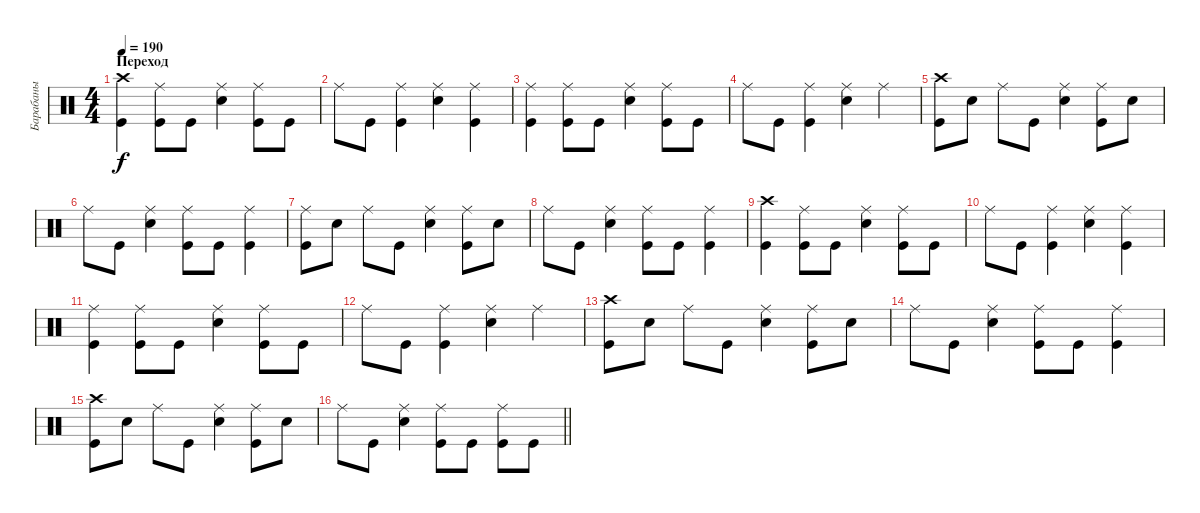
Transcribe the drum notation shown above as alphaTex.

\track ("Барабаны" "Барабаны") {instrument percussion}
\staff {score}
\articulation defaults
\ts (4 4)
\section ("" "Переход")
\tempo 190
\clef neutral
\ks c
("Kick (hit)" "Crash high (hit)").4{dy f} ("Kick (hit)" "Ride (middle)").8 "Kick (hit)".8 ("Snare (hit) 2" "Ride (middle)").4 ("Kick (hit)" "Ride (middle)").8 "Kick (hit)".8 |
"Ride (middle)".8 "Kick (hit)".8 ("Kick (hit)" "Ride (middle)").4 ("Snare (hit) 2" "Ride (middle)").4 ("Kick (hit)" "Ride (middle)").4 |
("Kick (hit)" "Ride (middle)").4 ("Kick (hit)" "Ride (middle)").8 "Kick (hit)".8 ("Snare (hit) 2" "Ride (middle)").4 ("Kick (hit)" "Ride (middle)").8 "Kick (hit)".8 |
"Ride (middle)".8 "Kick (hit)".8 ("Kick (hit)" "Ride (middle)").4 ("Snare (hit) 2" "Ride (middle)").4 "Ride (middle)".4 |
("Kick (hit)" "Crash high (hit)").8 "Snare (hit) 2".8 "Ride (middle)".8 "Kick (hit)".8 ("Snare (hit) 2" "Ride (middle)").4 ("Kick (hit)" "Ride (middle)").8 "Snare (hit) 2".8 |
"Ride (middle)".8 "Kick (hit)".8 ("Snare (hit) 2" "Ride (middle)").4 ("Kick (hit)" "Ride (middle)").8 "Kick (hit)".8 ("Kick (hit)" "Ride (middle)").4 |
("Kick (hit)" "Ride (middle)").8 "Snare (hit) 2".8 "Ride (middle)".8 "Kick (hit)".8 ("Snare (hit) 2" "Ride (middle)").4 ("Kick (hit)" "Ride (middle)").8 "Snare (hit) 2".8 |
"Ride (middle)".8 "Kick (hit)".8 ("Snare (hit) 2" "Ride (middle)").4 ("Kick (hit)" "Ride (middle)").8 "Kick (hit)".8 ("Kick (hit)" "Ride (middle)").4 |
("Kick (hit)" "Crash high (hit)").4 ("Kick (hit)" "Ride (middle)").8 "Kick (hit)".8 ("Snare (hit) 2" "Ride (middle)").4 ("Kick (hit)" "Ride (middle)").8 "Kick (hit)".8 |
"Ride (middle)".8 "Kick (hit)".8 ("Kick (hit)" "Ride (middle)").4 ("Snare (hit) 2" "Ride (middle)").4 ("Kick (hit)" "Ride (middle)").4 |
("Kick (hit)" "Ride (middle)").4 ("Kick (hit)" "Ride (middle)").8 "Kick (hit)".8 ("Snare (hit) 2" "Ride (middle)").4 ("Kick (hit)" "Ride (middle)").8 "Kick (hit)".8 |
"Ride (middle)".8 "Kick (hit)".8 ("Kick (hit)" "Ride (middle)").4 ("Snare (hit) 2" "Ride (middle)").4 "Ride (middle)".4 |
("Kick (hit)" "Crash high (hit)").8 "Snare (hit) 2".8 "Ride (middle)".8 "Kick (hit)".8 ("Snare (hit) 2" "Ride (middle)").4 ("Kick (hit)" "Ride (middle)").8 "Snare (hit) 2".8 |
"Ride (middle)".8 "Kick (hit)".8 ("Snare (hit) 2" "Ride (middle)").4 ("Kick (hit)" "Ride (middle)").8 "Kick (hit)".8 ("Kick (hit)" "Ride (middle)").4 |
("Kick (hit)" "Crash high (hit)").8 "Snare (hit) 2".8 "Ride (middle)".8 "Kick (hit)".8 ("Snare (hit) 2" "Ride (middle)").4 ("Kick (hit)" "Ride (middle)").8 "Snare (hit) 2".8 |
\barLineRight lightlight "Ride (middle)".8 "Kick (hit)".8
("Snare (hit) 2" "Ride (middle)").4 ("Kick (hit)" "Ride (middle)").8 "Kick (hit)".8 ("Kick (hit)" "Ride (middle)").8 "Kick (hit)".8
